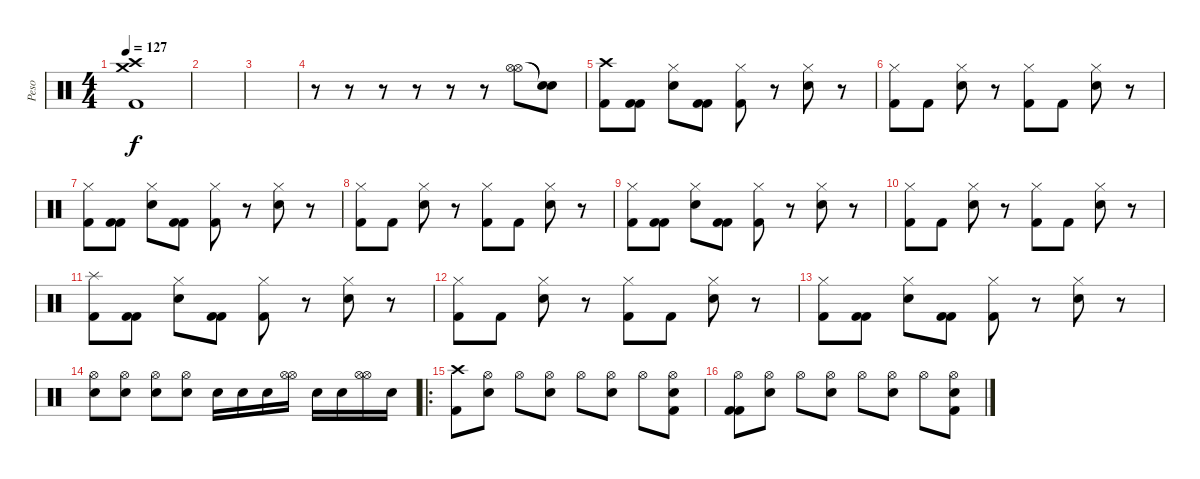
\track ("Peso" "Peso") {instrument percussion}
\staff {score}
\articulation defaults
\ts (4 4)
\tempo 127
\clef neutral
\ks c
("Crash high (hit)" "Crash medium (hit)" "Kick (hit) 2").1{dy f} |
|
|
r.8 r.8 r.8 r.8 r.8 r.8 ("Hi-Hat (open)" "Hi-Hat (open)").8 ("Snare (hit)"{t} "Snare (hit)"{t}).8 |
("Crash high (hit)" "Kick (hit) 2").8 ("Kick (hit) 2" "Kick (hit) 2").8 ("Hi-Hat (closed)" "Snare (hit) 2").8 ("Kick (hit) 2" "Kick (hit) 2").8 ("Hi-Hat (closed)" "Kick (hit) 2").8 r.8 ("Hi-Hat (closed)" "Snare (hit) 2").8 r.8 |
("Hi-Hat (closed)" "Kick (hit) 2").8 "Kick (hit) 2".8 ("Hi-Hat (closed)" "Snare (hit) 2").8 r.8 ("Hi-Hat (closed)" "Kick (hit) 2").8 "Kick (hit) 2".8 ("Hi-Hat (closed)" "Snare (hit) 2").8 r.8 |
("Hi-Hat (closed)" "Kick (hit) 2").8 ("Kick (hit) 2" "Kick (hit) 2").8 ("Hi-Hat (closed)" "Snare (hit) 2").8 ("Kick (hit) 2" "Kick (hit) 2").8 ("Hi-Hat (closed)" "Kick (hit) 2").8 r.8 ("Hi-Hat (closed)" "Snare (hit) 2").8 r.8 |
("Hi-Hat (closed)" "Kick (hit) 2").8 "Kick (hit) 2".8 ("Hi-Hat (closed)" "Snare (hit) 2").8 r.8 ("Hi-Hat (closed)" "Kick (hit) 2").8 "Kick (hit) 2".8 ("Hi-Hat (closed)" "Snare (hit) 2").8 r.8 |
("Hi-Hat (closed)" "Kick (hit) 2").8 ("Kick (hit) 2" "Kick (hit) 2").8 ("Hi-Hat (closed)" "Snare (hit) 2").8 ("Kick (hit) 2" "Kick (hit) 2").8 ("Hi-Hat (closed)" "Kick (hit) 2").8 r.8 ("Hi-Hat (closed)" "Snare (hit) 2").8 r.8 |
("Hi-Hat (closed)" "Kick (hit) 2").8 "Kick (hit) 2".8 ("Hi-Hat (closed)" "Snare (hit) 2").8 r.8 ("Hi-Hat (closed)" "Kick (hit) 2").8 "Kick (hit) 2".8 ("Hi-Hat (closed)" "Snare (hit) 2").8 r.8 |
("Splash (hit)" "Kick (hit) 2").8 ("Kick (hit) 2" "Kick (hit) 2").8 ("Hi-Hat (closed)" "Snare (hit) 2").8 ("Kick (hit) 2" "Kick (hit) 2").8 ("Hi-Hat (closed)" "Kick (hit) 2").8 r.8 ("Hi-Hat (closed)" "Snare (hit) 2").8 r.8 |
("Hi-Hat (closed)" "Kick (hit) 2").8 "Kick (hit) 2".8 ("Hi-Hat (closed)" "Snare (hit) 2").8 r.8 ("Hi-Hat (closed)" "Kick (hit) 2").8 "Kick (hit) 2".8 ("Hi-Hat (closed)" "Snare (hit) 2").8 r.8 |
("Hi-Hat (closed)" "Kick (hit) 2").8 ("Kick (hit) 2" "Kick (hit) 2").8 ("Hi-Hat (closed)" "Snare (hit) 2").8 ("Kick (hit) 2" "Kick (hit) 2").8 ("Hi-Hat (closed)" "Kick (hit) 2").8 r.8 ("Hi-Hat (closed)" "Snare (hit) 2").8 r.8 |
("Hi-Hat (open)" "Snare (hit) 2").8 ("Hi-Hat (open)" "Snare (hit) 2").8 ("Hi-Hat (open)" "Snare (hit) 2").8 ("Hi-Hat (open)" "Snare (hit) 2").8 "Snare (hit) 2".16 "Snare (hit) 2".16 "Snare (hit) 2".16 ("Hi-Hat (open)" "Hi-Hat (open)").16 "Snare (hit) 2".16 "Snare (hit) 2".16 ("Hi-Hat (open)" "Hi-Hat (open)").16 "Snare (hit) 2".16 |
\ro
("Crash high (hit)" "Kick (hit) 2").8 ("Hi-Hat (open)" "Snare (hit) 2").8 "Hi-Hat (open)".8 ("Hi-Hat (open)" "Snare (hit) 2").8 "Hi-Hat (open)".8 ("Hi-Hat (open)" "Snare (hit) 2").8 "Hi-Hat (open)".8 ("Hi-Hat (open)" "Snare (hit) 2" "Kick (hit) 2").8 |
("Hi-Hat (open)" "Kick (hit) 2" "Kick (hit) 2").8 ("Hi-Hat (open)" "Snare (hit) 2").8 "Hi-Hat (open)".8 ("Hi-Hat (open)" "Snare (hit) 2").8 "Hi-Hat (open)".8 ("Hi-Hat (open)" "Snare (hit) 2").8 "Hi-Hat (open)".8 ("Hi-Hat (open)" "Snare (hit) 2" "Kick (hit) 2").8
